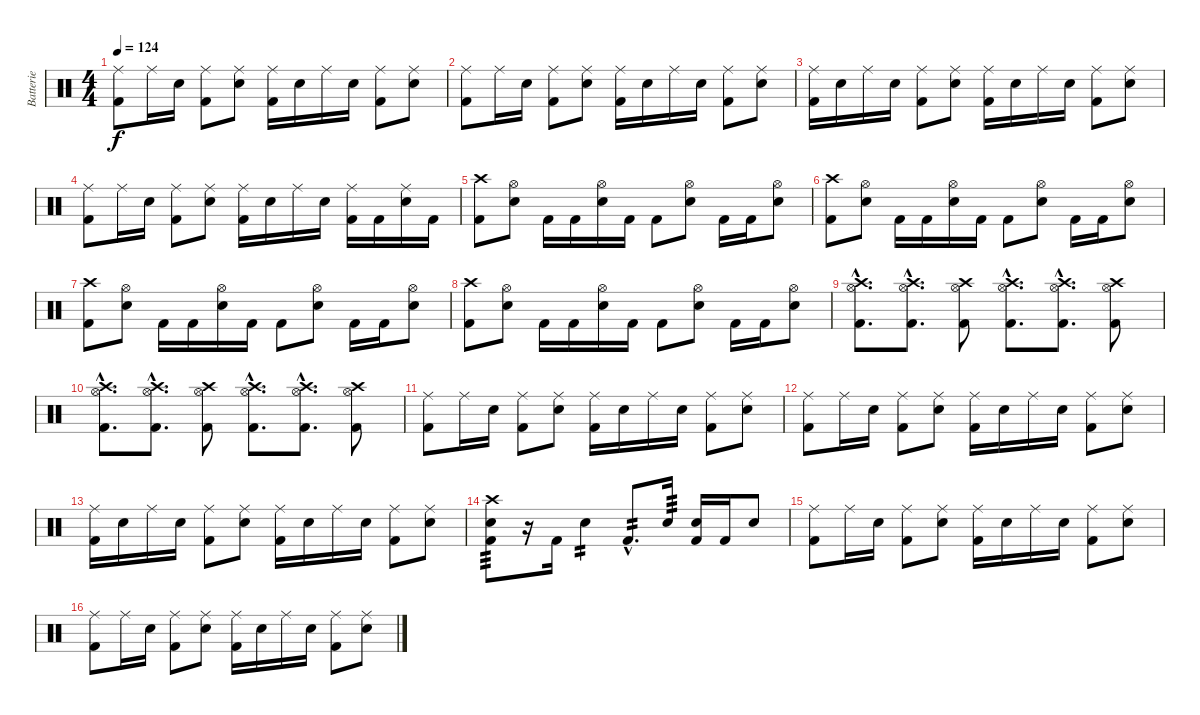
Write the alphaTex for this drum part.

\track ("Batterie" "Batterie") {instrument percussion}
\staff {score}
\articulation defaults
\ts (4 4)
\tempo 124
\clef neutral
\ks c
("Ride (middle)" "Kick (hit) 2").8{dy f} "Ride (middle)".16 "Electric Snare (hit)".16 ("Ride (middle)" "Kick (hit) 2").8 ("Ride (middle)" "Electric Snare (hit)").8 ("Ride (middle)" "Kick (hit) 2").16 "Electric Snare (hit)".16 "Ride (middle)".16 "Electric Snare (hit)".16 ("Ride (middle)" "Kick (hit) 2").8 ("Ride (middle)" "Electric Snare (hit)").8 |
("Ride (middle)" "Kick (hit) 2").8 "Ride (middle)".16 "Electric Snare (hit)".16 ("Ride (middle)" "Kick (hit) 2").8 ("Ride (middle)" "Electric Snare (hit)").8 ("Ride (middle)" "Kick (hit) 2").16 "Electric Snare (hit)".16 "Ride (middle)".16 "Electric Snare (hit)".16 ("Ride (middle)" "Kick (hit) 2").8 ("Ride (middle)" "Electric Snare (hit)").8 |
("Ride (middle)" "Kick (hit) 2").16 "Electric Snare (hit)".16 "Ride (middle)".16 "Electric Snare (hit)".16 ("Ride (middle)" "Kick (hit) 2").8 ("Ride (middle)" "Electric Snare (hit)").8 ("Ride (middle)" "Kick (hit) 2").16 "Electric Snare (hit)".16 "Ride (middle)".16 "Electric Snare (hit)".16 ("Ride (middle)" "Kick (hit) 2").8 ("Ride (middle)" "Electric Snare (hit)").8 |
("Ride (middle)" "Kick (hit) 2").8 "Ride (middle)".16 "Electric Snare (hit)".16 ("Ride (middle)" "Kick (hit) 2").8 ("Ride (middle)" "Electric Snare (hit)").8 ("Ride (middle)" "Kick (hit) 2").16 "Electric Snare (hit)".16 "Ride (middle)".16 "Electric Snare (hit)".16 ("Ride (middle)" "Kick (hit) 2").16 "Kick (hit) 2".16 ("Ride (middle)" "Electric Snare (hit)").16 "Kick (hit) 2".16 |
("Crash high (hit)" "Kick (hit) 2").8 ("Hi-Hat (open)" "Electric Snare (hit)").8 "Kick (hit) 2".16 "Kick (hit) 2".16 ("Hi-Hat (open)" "Electric Snare (hit)").16 "Kick (hit) 2".16 "Kick (hit) 2".8 ("Hi-Hat (open)" "Electric Snare (hit)").8 "Kick (hit) 2".16 "Kick (hit) 2".16 ("Hi-Hat (open)" "Electric Snare (hit)").8 |
("Crash high (hit)" "Kick (hit) 2").8 ("Hi-Hat (open)" "Electric Snare (hit)").8 "Kick (hit) 2".16 "Kick (hit) 2".16 ("Hi-Hat (open)" "Electric Snare (hit)").16 "Kick (hit) 2".16 "Kick (hit) 2".8 ("Hi-Hat (open)" "Electric Snare (hit)").8 "Kick (hit) 2".16 "Kick (hit) 2".16 ("Hi-Hat (open)" "Electric Snare (hit)").8 |
("Crash high (hit)" "Kick (hit) 2").8 ("Hi-Hat (open)" "Electric Snare (hit)").8 "Kick (hit) 2".16 "Kick (hit) 2".16 ("Hi-Hat (open)" "Electric Snare (hit)").16 "Kick (hit) 2".16 "Kick (hit) 2".8 ("Hi-Hat (open)" "Electric Snare (hit)").8 "Kick (hit) 2".16 "Kick (hit) 2".16 ("Hi-Hat (open)" "Electric Snare (hit)").8 |
("Crash high (hit)" "Kick (hit) 2").8 ("Hi-Hat (open)" "Electric Snare (hit)").8 "Kick (hit) 2".16 "Kick (hit) 2".16 ("Hi-Hat (open)" "Electric Snare (hit)").16 "Kick (hit) 2".16 "Kick (hit) 2".8 ("Hi-Hat (open)" "Electric Snare (hit)").8 "Kick (hit) 2".16 "Kick (hit) 2".16 ("Hi-Hat (open)" "Electric Snare (hit)").8 |
("Crash high (hit)"{hac} "Hi-Hat (open)"{hac} "Kick (hit) 2"{hac}).8{d} ("Crash high (hit)"{hac} "Hi-Hat (open)"{hac} "Kick (hit) 2"{hac}).8{d} ("Crash high (hit)" "Hi-Hat (open)" "Kick (hit) 2").8 ("Crash high (hit)"{hac} "Hi-Hat (open)"{hac} "Kick (hit) 2"{hac}).8{d} ("Crash high (hit)"{hac} "Hi-Hat (open)"{hac} "Kick (hit) 2"{hac}).8{d} ("Crash high (hit)" "Hi-Hat (open)" "Kick (hit) 2").8 |
("Crash high (hit)"{hac} "Hi-Hat (open)"{hac} "Kick (hit) 2"{hac}).8{d} ("Crash high (hit)"{hac} "Hi-Hat (open)"{hac} "Kick (hit) 2"{hac}).8{d} ("Crash high (hit)" "Hi-Hat (open)" "Kick (hit) 2").8 ("Crash high (hit)"{hac} "Hi-Hat (open)"{hac} "Kick (hit) 2"{hac}).8{d} ("Crash high (hit)"{hac} "Hi-Hat (open)"{hac} "Kick (hit) 2"{hac}).8{d} ("Crash high (hit)" "Hi-Hat (open)" "Kick (hit) 2").8 |
("Ride (middle)" "Kick (hit) 2").8 "Ride (middle)".16 "Electric Snare (hit)".16 ("Ride (middle)" "Kick (hit) 2").8 ("Ride (middle)" "Electric Snare (hit)").8 ("Ride (middle)" "Kick (hit) 2").16 "Electric Snare (hit)".16 "Ride (middle)".16 "Electric Snare (hit)".16 ("Ride (middle)" "Kick (hit) 2").8 ("Ride (middle)" "Electric Snare (hit)").8 |
("Ride (middle)" "Kick (hit) 2").8 "Ride (middle)".16 "Electric Snare (hit)".16 ("Ride (middle)" "Kick (hit) 2").8 ("Ride (middle)" "Electric Snare (hit)").8 ("Ride (middle)" "Kick (hit) 2").16 "Electric Snare (hit)".16 "Ride (middle)".16 "Electric Snare (hit)".16 ("Ride (middle)" "Kick (hit) 2").8 ("Ride (middle)" "Electric Snare (hit)").8 |
("Ride (middle)" "Kick (hit) 2").16 "Electric Snare (hit)".16 "Ride (middle)".16 "Electric Snare (hit)".16 ("Ride (middle)" "Kick (hit) 2").8 ("Ride (middle)" "Electric Snare (hit)").8 ("Ride (middle)" "Kick (hit) 2").16 "Electric Snare (hit)".16 "Ride (middle)".16 "Electric Snare (hit)".16 ("Ride (middle)" "Kick (hit) 2").8 ("Ride (middle)" "Electric Snare (hit)").8 |
("Crash high (hit)" "Electric Snare (hit)" "Kick (hit) 2").8{tp 3} r.16 "Kick (hit) 2".16 "Electric Snare (hit)".4{tp 2} "Kick (hit) 2"{hac}.8{d tp 2} "Electric Snare (hit)".16{tp 3} ("Electric Snare (hit)" "Kick (hit) 2").16 "Kick (hit) 2".16 "Electric Snare (hit)".8 |
("Ride (middle)" "Kick (hit) 2").8 "Ride (middle)".16 "Electric Snare (hit)".16 ("Ride (middle)" "Kick (hit) 2").8 ("Ride (middle)" "Electric Snare (hit)").8 ("Ride (middle)" "Kick (hit) 2").16 "Electric Snare (hit)".16 "Ride (middle)".16 "Electric Snare (hit)".16 ("Ride (middle)" "Kick (hit) 2").8 ("Ride (middle)" "Electric Snare (hit)").8 |
("Ride (middle)" "Kick (hit) 2").8 "Ride (middle)".16 "Electric Snare (hit)".16 ("Ride (middle)" "Kick (hit) 2").8 ("Ride (middle)" "Electric Snare (hit)").8 ("Ride (middle)" "Kick (hit) 2").16 "Electric Snare (hit)".16 "Ride (middle)".16 "Electric Snare (hit)".16 ("Ride (middle)" "Kick (hit) 2").8 ("Ride (middle)" "Electric Snare (hit)").8
